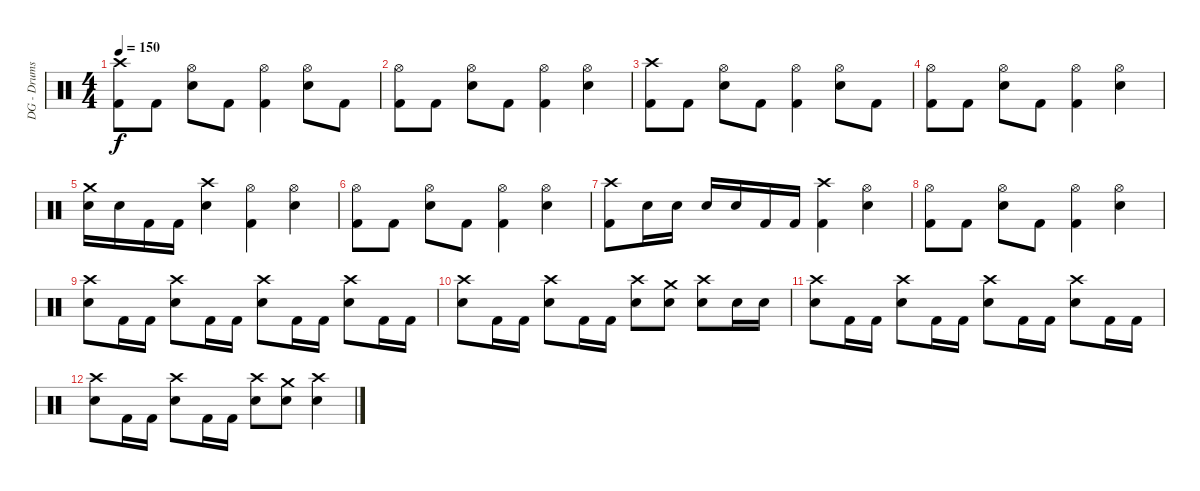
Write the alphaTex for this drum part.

\track ("DG - Drums" "DG - Drums") {instrument percussion}
\staff {score}
\articulation defaults
\ts (4 4)
\tempo 150
\clef neutral
\ks c
("Crash high (hit)" "Kick (hit) 2").8{dy f} "Kick (hit) 2".8 ("Hi-Hat (open)" "Electric Snare (hit)").8 "Kick (hit) 2".8 ("Hi-Hat (open)" "Kick (hit) 2").4 ("Hi-Hat (open)" "Electric Snare (hit)").8 "Kick (hit) 2".8 |
("Hi-Hat (open)" "Kick (hit) 2").8 "Kick (hit) 2".8 ("Hi-Hat (open)" "Electric Snare (hit)").8 "Kick (hit) 2".8 ("Hi-Hat (open)" "Kick (hit) 2").4 ("Hi-Hat (open)" "Electric Snare (hit)").4 |
("Crash high (hit)" "Kick (hit) 2").8 "Kick (hit) 2".8 ("Hi-Hat (open)" "Electric Snare (hit)").8 "Kick (hit) 2".8 ("Hi-Hat (open)" "Kick (hit) 2").4 ("Hi-Hat (open)" "Electric Snare (hit)").8 "Kick (hit) 2".8 |
("Hi-Hat (open)" "Kick (hit) 2").8 "Kick (hit) 2".8 ("Hi-Hat (open)" "Electric Snare (hit)").8 "Kick (hit) 2".8 ("Hi-Hat (open)" "Kick (hit) 2").4 ("Hi-Hat (open)" "Electric Snare (hit)").4 |
("Crash medium (hit)" "Electric Snare (hit)").16 "Electric Snare (hit)".16 "Kick (hit) 2".16 "Kick (hit) 2".16 ("Crash high (hit)" "Electric Snare (hit)").4 ("Hi-Hat (open)" "Kick (hit) 2").4 ("Hi-Hat (open)" "Electric Snare (hit)").4 |
("Hi-Hat (open)" "Kick (hit) 2").8 "Kick (hit) 2".8 ("Hi-Hat (open)" "Electric Snare (hit)").8 "Kick (hit) 2".8 ("Hi-Hat (open)" "Kick (hit) 2").4 ("Hi-Hat (open)" "Electric Snare (hit)").4 |
("Crash high (hit)" "Kick (hit) 2").8 "Electric Snare (hit)".16 "Electric Snare (hit)".16 "Electric Snare (hit)".16 "Electric Snare (hit)".16 "Kick (hit) 2".16 "Kick (hit) 2".16 ("Crash high (hit)" "Kick (hit) 2").4 ("Hi-Hat (open)" "Electric Snare (hit)").4 |
("Hi-Hat (open)" "Kick (hit) 2").8 "Kick (hit) 2".8 ("Hi-Hat (open)" "Electric Snare (hit)").8 "Kick (hit) 2".8 ("Hi-Hat (open)" "Kick (hit) 2").4 ("Hi-Hat (open)" "Electric Snare (hit)").4 |
("Crash high (hit)" "Electric Snare (hit)").8 "Kick (hit) 2".16 "Kick (hit) 2".16 ("Crash high (hit)" "Electric Snare (hit)").8 "Kick (hit) 2".16 "Kick (hit) 2".16 ("Crash high (hit)" "Electric Snare (hit)").8 "Kick (hit) 2".16 "Kick (hit) 2".16 ("Crash high (hit)" "Electric Snare (hit)").8 "Kick (hit) 2".16 "Kick (hit) 2".16 |
("Crash high (hit)" "Electric Snare (hit)").8 "Kick (hit) 2".16 "Kick (hit) 2".16 ("Crash high (hit)" "Electric Snare (hit)").8 "Kick (hit) 2".16 "Kick (hit) 2".16 ("Crash high (hit)" "Electric Snare (hit)").8 ("Crash medium (hit)" "Electric Snare (hit)").8 ("Crash high (hit)" "Electric Snare (hit)").8 "Electric Snare (hit)".16 "Electric Snare (hit)".16 |
("Crash high (hit)" "Electric Snare (hit)").8 "Kick (hit) 2".16 "Kick (hit) 2".16 ("Crash high (hit)" "Electric Snare (hit)").8 "Kick (hit) 2".16 "Kick (hit) 2".16 ("Crash high (hit)" "Electric Snare (hit)").8 "Kick (hit) 2".16 "Kick (hit) 2".16 ("Crash high (hit)" "Electric Snare (hit)").8 "Kick (hit) 2".16 "Kick (hit) 2".16 |
("Crash high (hit)" "Electric Snare (hit)").8 "Kick (hit) 2".16 "Kick (hit) 2".16 ("Crash high (hit)" "Electric Snare (hit)").8 "Kick (hit) 2".16 "Kick (hit) 2".16 ("Crash high (hit)" "Electric Snare (hit)").8 ("Crash medium (hit)" "Electric Snare (hit)").8 ("Crash high (hit)" "Electric Snare (hit)").4
